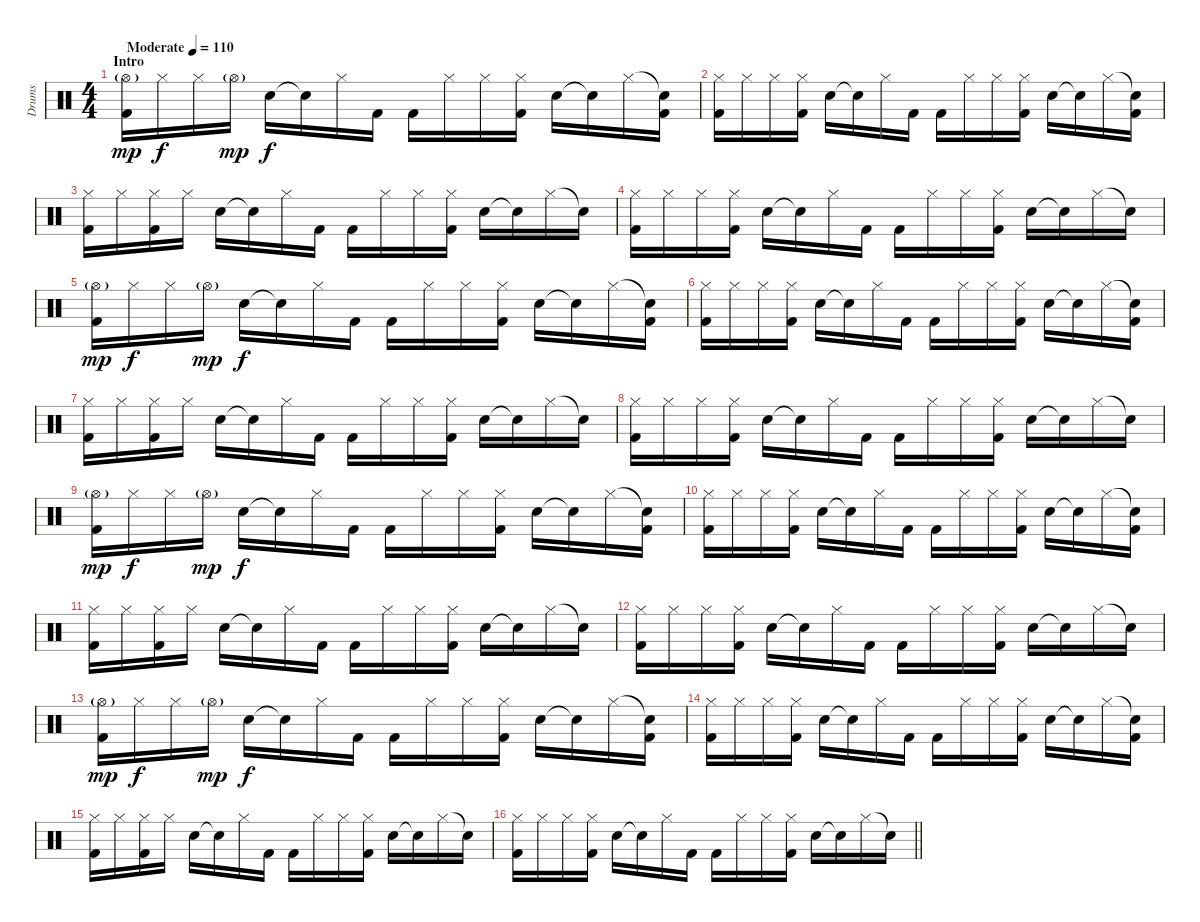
\track ("Drums" "Drums") {instrument percussion}
\staff {score}
\articulation defaults
\ts (4 4)
\section ("" "Intro")
\tempo (110 "Moderate")
\clef neutral
\ks c
("Hi-Hat (open)"{g} "Kick (hit) 2").16{dy mp} "Hi-Hat (closed)".16{dy f} "Hi-Hat (closed)".16 "Hi-Hat (open)"{g}.16{dy mp} "Electric Snare (hit)".16{dy f} "Snare (hit)"{t}.16 "Hi-Hat (closed)".16 "Kick (hit) 2".16 "Kick (hit) 2".16 "Hi-Hat (closed)".16 "Hi-Hat (closed)".16 ("Hi-Hat (closed)" "Kick (hit) 2").16 "Electric Snare (hit)".16 "Snare (hit)"{t}.16 "Hi-Hat (closed)".16 ("Snare (hit)"{t} "Kick (hit) 2").16 |
("Hi-Hat (closed)" "Kick (hit) 2").16 "Hi-Hat (closed)".16 "Hi-Hat (closed)".16 ("Hi-Hat (closed)" "Kick (hit) 2").16 "Electric Snare (hit)".16 "Snare (hit)"{t}.16 "Hi-Hat (closed)".16 "Kick (hit) 2".16 "Kick (hit) 2".16 "Hi-Hat (closed)".16 "Hi-Hat (closed)".16 ("Hi-Hat (closed)" "Kick (hit) 2").16 "Electric Snare (hit)".16 "Snare (hit)"{t}.16 "Hi-Hat (closed)".16 ("Snare (hit)"{t} "Kick (hit) 2").16 |
("Hi-Hat (closed)" "Kick (hit) 2").16 "Hi-Hat (closed)".16 ("Hi-Hat (closed)" "Kick (hit) 2").16 "Hi-Hat (closed)".16 "Electric Snare (hit)".16 "Snare (hit)"{t}.16 "Hi-Hat (closed)".16 "Kick (hit) 2".16 "Kick (hit) 2".16 "Hi-Hat (closed)".16 "Hi-Hat (closed)".16 ("Hi-Hat (closed)" "Kick (hit) 2").16 "Electric Snare (hit)".16 "Snare (hit)"{t}.16 "Hi-Hat (closed)".16 "Snare (hit)"{t}.16 |
("Hi-Hat (closed)" "Kick (hit) 2").16 "Hi-Hat (closed)".16 "Hi-Hat (closed)".16 ("Hi-Hat (closed)" "Kick (hit) 2").16 "Electric Snare (hit)".16 "Snare (hit)"{t}.16 "Hi-Hat (closed)".16 "Kick (hit) 2".16 "Kick (hit) 2".16 "Hi-Hat (closed)".16 "Hi-Hat (closed)".16 ("Hi-Hat (closed)" "Kick (hit) 2").16 "Electric Snare (hit)".16 "Snare (hit)"{t}.16 "Hi-Hat (closed)".16 "Snare (hit)"{t}.16 |
("Hi-Hat (open)"{g} "Kick (hit) 2").16{dy mp} "Hi-Hat (closed)".16{dy f} "Hi-Hat (closed)".16 "Hi-Hat (open)"{g}.16{dy mp} "Electric Snare (hit)".16{dy f} "Snare (hit)"{t}.16 "Hi-Hat (closed)".16 "Kick (hit) 2".16 "Kick (hit) 2".16 "Hi-Hat (closed)".16 "Hi-Hat (closed)".16 ("Hi-Hat (closed)" "Kick (hit) 2").16 "Electric Snare (hit)".16 "Snare (hit)"{t}.16 "Hi-Hat (closed)".16 ("Snare (hit)"{t} "Kick (hit) 2").16 |
("Hi-Hat (closed)" "Kick (hit) 2").16 "Hi-Hat (closed)".16 "Hi-Hat (closed)".16 ("Hi-Hat (closed)" "Kick (hit) 2").16 "Electric Snare (hit)".16 "Snare (hit)"{t}.16 "Hi-Hat (closed)".16 "Kick (hit) 2".16 "Kick (hit) 2".16 "Hi-Hat (closed)".16 "Hi-Hat (closed)".16 ("Hi-Hat (closed)" "Kick (hit) 2").16 "Electric Snare (hit)".16 "Snare (hit)"{t}.16 "Hi-Hat (closed)".16 ("Snare (hit)"{t} "Kick (hit) 2").16 |
("Hi-Hat (closed)" "Kick (hit) 2").16 "Hi-Hat (closed)".16 ("Hi-Hat (closed)" "Kick (hit) 2").16 "Hi-Hat (closed)".16 "Electric Snare (hit)".16 "Snare (hit)"{t}.16 "Hi-Hat (closed)".16 "Kick (hit) 2".16 "Kick (hit) 2".16 "Hi-Hat (closed)".16 "Hi-Hat (closed)".16 ("Hi-Hat (closed)" "Kick (hit) 2").16 "Electric Snare (hit)".16 "Snare (hit)"{t}.16 "Hi-Hat (closed)".16 "Snare (hit)"{t}.16 |
("Hi-Hat (closed)" "Kick (hit) 2").16 "Hi-Hat (closed)".16 "Hi-Hat (closed)".16 ("Hi-Hat (closed)" "Kick (hit) 2").16 "Electric Snare (hit)".16 "Snare (hit)"{t}.16 "Hi-Hat (closed)".16 "Kick (hit) 2".16 "Kick (hit) 2".16 "Hi-Hat (closed)".16 "Hi-Hat (closed)".16 ("Hi-Hat (closed)" "Kick (hit) 2").16 "Electric Snare (hit)".16 "Snare (hit)"{t}.16 "Hi-Hat (closed)".16 "Snare (hit)"{t}.16 |
("Hi-Hat (open)"{g} "Kick (hit) 2").16{dy mp} "Hi-Hat (closed)".16{dy f} "Hi-Hat (closed)".16 "Hi-Hat (open)"{g}.16{dy mp} "Electric Snare (hit)".16{dy f} "Snare (hit)"{t}.16 "Hi-Hat (closed)".16 "Kick (hit) 2".16 "Kick (hit) 2".16 "Hi-Hat (closed)".16 "Hi-Hat (closed)".16 ("Hi-Hat (closed)" "Kick (hit) 2").16 "Electric Snare (hit)".16 "Snare (hit)"{t}.16 "Hi-Hat (closed)".16 ("Snare (hit)"{t} "Kick (hit) 2").16 |
("Hi-Hat (closed)" "Kick (hit) 2").16 "Hi-Hat (closed)".16 "Hi-Hat (closed)".16 ("Hi-Hat (closed)" "Kick (hit) 2").16 "Electric Snare (hit)".16 "Snare (hit)"{t}.16 "Hi-Hat (closed)".16 "Kick (hit) 2".16 "Kick (hit) 2".16 "Hi-Hat (closed)".16 "Hi-Hat (closed)".16 ("Hi-Hat (closed)" "Kick (hit) 2").16 "Electric Snare (hit)".16 "Snare (hit)"{t}.16 "Hi-Hat (closed)".16 ("Snare (hit)"{t} "Kick (hit) 2").16 |
("Hi-Hat (closed)" "Kick (hit) 2").16 "Hi-Hat (closed)".16 ("Hi-Hat (closed)" "Kick (hit) 2").16 "Hi-Hat (closed)".16 "Electric Snare (hit)".16 "Snare (hit)"{t}.16 "Hi-Hat (closed)".16 "Kick (hit) 2".16 "Kick (hit) 2".16 "Hi-Hat (closed)".16 "Hi-Hat (closed)".16 ("Hi-Hat (closed)" "Kick (hit) 2").16 "Electric Snare (hit)".16 "Snare (hit)"{t}.16 "Hi-Hat (closed)".16 "Snare (hit)"{t}.16 |
("Hi-Hat (closed)" "Kick (hit) 2").16 "Hi-Hat (closed)".16 "Hi-Hat (closed)".16 ("Hi-Hat (closed)" "Kick (hit) 2").16 "Electric Snare (hit)".16 "Snare (hit)"{t}.16 "Hi-Hat (closed)".16 "Kick (hit) 2".16 "Kick (hit) 2".16 "Hi-Hat (closed)".16 "Hi-Hat (closed)".16 ("Hi-Hat (closed)" "Kick (hit) 2").16 "Electric Snare (hit)".16 "Snare (hit)"{t}.16 "Hi-Hat (closed)".16 "Snare (hit)"{t}.16 |
("Hi-Hat (open)"{g} "Kick (hit) 2").16{dy mp} "Hi-Hat (closed)".16{dy f} "Hi-Hat (closed)".16 "Hi-Hat (open)"{g}.16{dy mp} "Electric Snare (hit)".16{dy f} "Snare (hit)"{t}.16 "Hi-Hat (closed)".16 "Kick (hit) 2".16 "Kick (hit) 2".16 "Hi-Hat (closed)".16 "Hi-Hat (closed)".16 ("Hi-Hat (closed)" "Kick (hit) 2").16 "Electric Snare (hit)".16 "Snare (hit)"{t}.16 "Hi-Hat (closed)".16 ("Snare (hit)"{t} "Kick (hit) 2").16 |
("Hi-Hat (closed)" "Kick (hit) 2").16 "Hi-Hat (closed)".16 "Hi-Hat (closed)".16 ("Hi-Hat (closed)" "Kick (hit) 2").16 "Electric Snare (hit)".16 "Snare (hit)"{t}.16 "Hi-Hat (closed)".16 "Kick (hit) 2".16 "Kick (hit) 2".16 "Hi-Hat (closed)".16 "Hi-Hat (closed)".16 ("Hi-Hat (closed)" "Kick (hit) 2").16 "Electric Snare (hit)".16 "Snare (hit)"{t}.16 "Hi-Hat (closed)".16 ("Snare (hit)"{t} "Kick (hit) 2").16 |
("Hi-Hat (closed)" "Kick (hit) 2").16 "Hi-Hat (closed)".16 ("Hi-Hat (closed)" "Kick (hit) 2").16 "Hi-Hat (closed)".16 "Electric Snare (hit)".16 "Snare (hit)"{t}.16 "Hi-Hat (closed)".16 "Kick (hit) 2".16 "Kick (hit) 2".16 "Hi-Hat (closed)".16 "Hi-Hat (closed)".16 ("Hi-Hat (closed)" "Kick (hit) 2").16 "Electric Snare (hit)".16 "Snare (hit)"{t}.16 "Hi-Hat (closed)".16 "Snare (hit)"{t}.16 |
\barLineRight lightlight
("Hi-Hat (closed)" "Kick (hit) 2").16 "Hi-Hat (closed)".16 "Hi-Hat (closed)".16 ("Hi-Hat (closed)" "Kick (hit) 2").16 "Electric Snare (hit)".16 "Snare (hit)"{t}.16 "Hi-Hat (closed)".16 "Kick (hit) 2".16 "Kick (hit) 2".16 "Hi-Hat (closed)".16 "Hi-Hat (closed)".16 ("Hi-Hat (closed)" "Kick (hit) 2").16 "Electric Snare (hit)".16 "Snare (hit)"{t}.16 "Hi-Hat (closed)".16 "Snare (hit)"{t}.16
